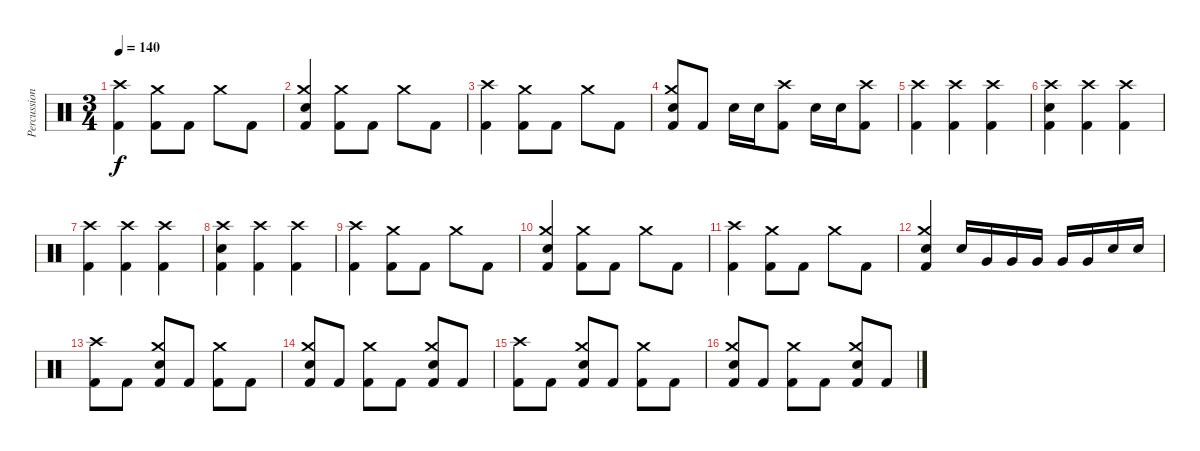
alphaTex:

\track ("Percussions" "Percussion") {instrument percussion}
\staff {score}
\articulation defaults
\ts (3 4)
\tempo 140
\clef neutral
\ks c
("Crash high (hit)" "Kick (hit) 2").4{dy f} ("Crash medium (hit)" "Kick (hit) 2").8 "Kick (hit) 2".8 "Crash medium (hit)".8 "Kick (hit) 2".8 |
("Crash medium (hit)" "Electric Snare (hit)" "Kick (hit) 2").4 ("Crash medium (hit)" "Kick (hit) 2").8 "Kick (hit) 2".8 "Crash medium (hit)".8 "Kick (hit) 2".8 |
("Crash high (hit)" "Kick (hit) 2").4 ("Crash medium (hit)" "Kick (hit) 2").8 "Kick (hit) 2".8 "Crash medium (hit)".8 "Kick (hit) 2".8 |
("Crash medium (hit)" "Electric Snare (hit)" "Kick (hit) 2").8 "Kick (hit) 2".8 "Electric Snare (hit)".16 "Electric Snare (hit)".16 ("Crash high (hit)" "Kick (hit) 2").8 "Electric Snare (hit)".16 "Electric Snare (hit)".16 ("Crash high (hit)" "Kick (hit) 2").8 |
("Crash high (hit)" "Kick (hit) 2").4 ("Crash high (hit)" "Kick (hit) 2").4 ("Crash high (hit)" "Kick (hit) 2").4 |
("Crash high (hit)" "Electric Snare (hit)" "Kick (hit) 2").4 ("Crash high (hit)" "Kick (hit) 2").4 ("Crash high (hit)" "Kick (hit) 2").4 |
("Crash high (hit)" "Kick (hit) 2").4 ("Crash high (hit)" "Kick (hit) 2").4 ("Crash high (hit)" "Kick (hit) 2").4 |
("Crash high (hit)" "Electric Snare (hit)" "Kick (hit) 2").4 ("Crash high (hit)" "Kick (hit) 2").4 ("Crash high (hit)" "Kick (hit) 2").4 |
("Crash high (hit)" "Kick (hit) 2").4 ("Crash medium (hit)" "Kick (hit) 2").8 "Kick (hit) 2".8 "Crash medium (hit)".8 "Kick (hit) 2".8 |
("Crash medium (hit)" "Electric Snare (hit)" "Kick (hit) 2").4 ("Crash medium (hit)" "Kick (hit) 2").8 "Kick (hit) 2".8 "Crash medium (hit)".8 "Kick (hit) 2".8 |
("Crash high (hit)" "Kick (hit) 2").4 ("Crash medium (hit)" "Kick (hit) 2").8 "Kick (hit) 2".8 "Crash medium (hit)".8 "Kick (hit) 2".8 |
("Crash medium (hit)" "Electric Snare (hit)" "Kick (hit) 2").4 "Electric Snare (hit)".16 "Very Low Tom (hit)".16 "Very Low Tom (hit)".16 "Very Low Tom (hit)".16 "Very Low Tom (hit)".16 "Very Low Tom (hit)".16 "Electric Snare (hit)".16 "Electric Snare (hit)".16 |
("Crash high (hit)" "Kick (hit) 2").8 "Kick (hit) 2".8 ("Crash medium (hit)" "Electric Snare (hit)" "Kick (hit) 2").8 "Kick (hit) 2".8 ("Crash medium (hit)" "Kick (hit) 2").8 "Kick (hit) 2".8 |
("Crash medium (hit)" "Electric Snare (hit)" "Kick (hit) 2").8 "Kick (hit) 2".8 ("Crash medium (hit)" "Kick (hit) 2").8 "Kick (hit) 2".8 ("Crash medium (hit)" "Electric Snare (hit)" "Kick (hit) 2").8 "Kick (hit) 2".8 |
("Crash high (hit)" "Kick (hit) 2").8 "Kick (hit) 2".8 ("Crash medium (hit)" "Electric Snare (hit)" "Kick (hit) 2").8 "Kick (hit) 2".8 ("Crash medium (hit)" "Kick (hit) 2").8 "Kick (hit) 2".8 |
("Crash medium (hit)" "Electric Snare (hit)" "Kick (hit) 2").8 "Kick (hit) 2".8 ("Crash medium (hit)" "Kick (hit) 2").8 "Kick (hit) 2".8 ("Crash medium (hit)" "Electric Snare (hit)" "Kick (hit) 2").8 "Kick (hit) 2".8
